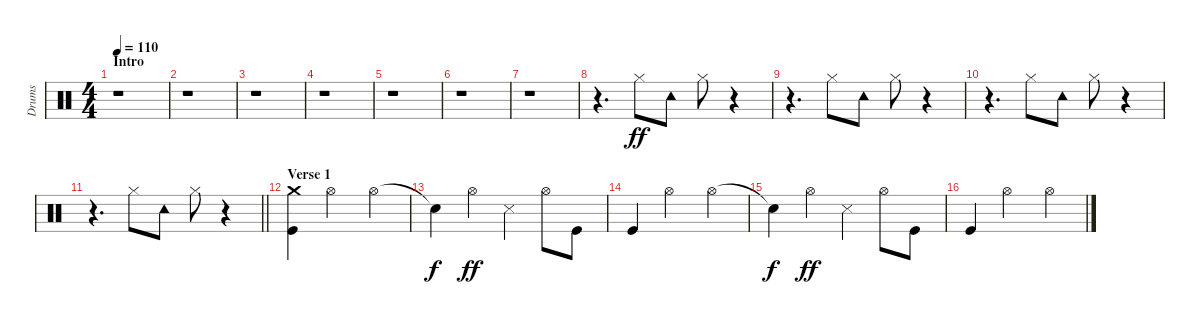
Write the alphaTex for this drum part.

\track ("Drums" "Drums") {instrument percussion}
\staff {score}
\articulation defaults
\ts (4 4)
\section ("" "Intro")
\tempo 110
\clef neutral
\ks c
r.1{dy ff} |
r.1 |
r.1 |
r.1 |
r.1 |
r.1 |
r.1 |
r.4{d} "Hi-Hat (closed)".8{beam merge} "Tambourine (hit)".8{beam split} "Hi-Hat (closed)".8 r.4 |
r.4{d} "Hi-Hat (closed)".8{beam merge} "Tambourine (hit)".8{beam split} "Hi-Hat (closed)".8 r.4 |
r.4{d} "Hi-Hat (closed)".8{beam merge} "Tambourine (hit)".8{beam split} "Hi-Hat (closed)".8 r.4 |
\barLineRight lightlight
r.4{d} "Hi-Hat (closed)".8{beam merge} "Tambourine (hit)".8{beam split} "Hi-Hat (closed)".8 r.4 |
\section ("" "Verse 1")
("Kick (hit)" "Crash medium (hit)").4 "Hi-Hat (open)".2 "Hi-Hat (open)".4 |
"Snare (hit)"{t}.4{dy f} "Hi-Hat (open)".4{dy ff} "Snare (side stick) 3".4 "Hi-Hat (open)".8 "Kick (hit)".8 |
"Kick (hit)".4 "Hi-Hat (open)".2 "Hi-Hat (open)".4 |
"Snare (hit)"{t}.4{dy f} "Hi-Hat (open)".4{dy ff} "Snare (side stick) 3".4 "Hi-Hat (open)".8 "Kick (hit)".8 |
"Kick (hit)".4 "Hi-Hat (open)".2 "Hi-Hat (open)".4
